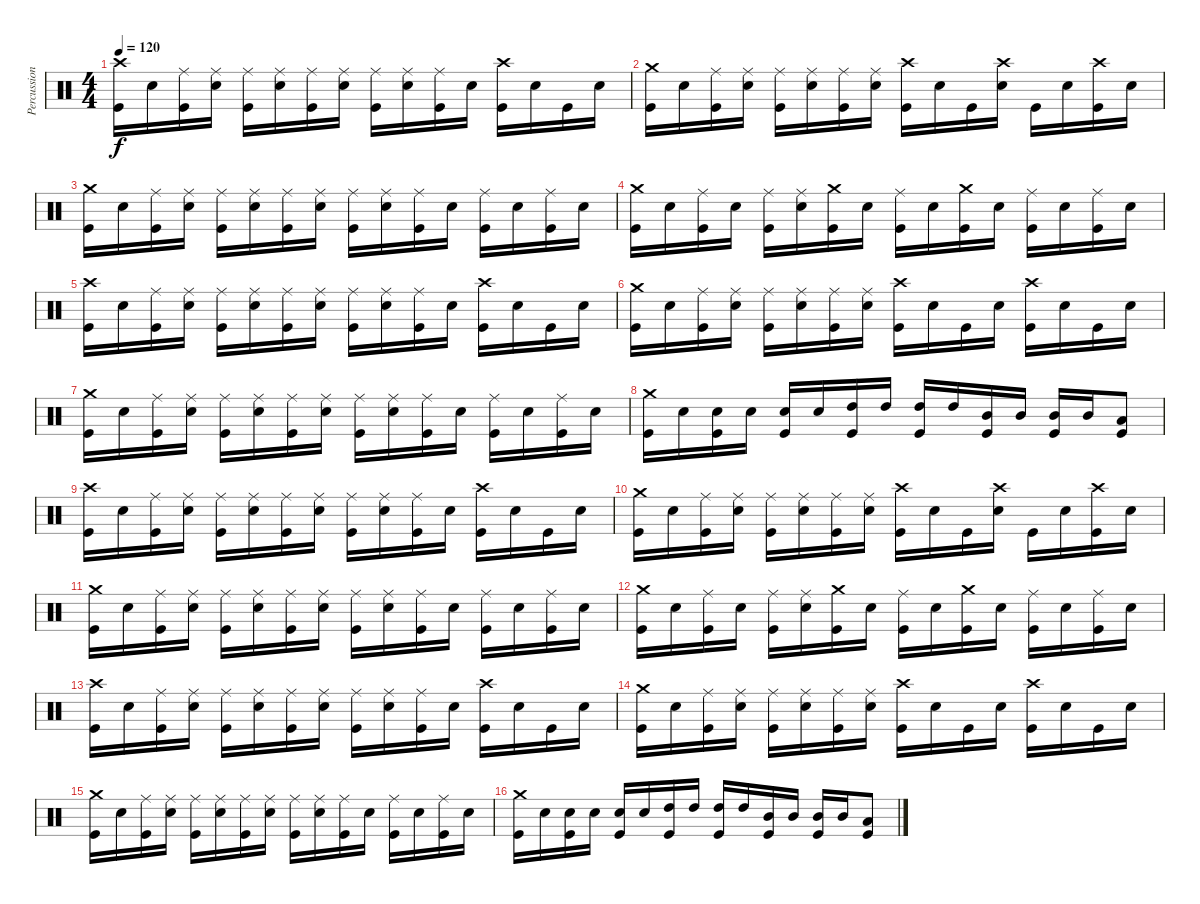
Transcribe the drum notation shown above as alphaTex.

\track ("Percussioni" "Percussion") {instrument percussion}
\staff {score}
\articulation defaults
\ts (4 4)
\tempo 120
\tempo 195
\tempo 120
\clef neutral
\ks c
("Crash high (hit)" "Kick (hit)").16{dy f} "Electric Snare (hit)".16 ("Ride (middle)" "Kick (hit)").16 ("Ride (middle)" "Electric Snare (hit)").16 ("Ride (middle)" "Kick (hit)").16 ("Ride (middle)" "Electric Snare (hit)").16 ("Ride (middle)" "Kick (hit)").16 ("Ride (middle)" "Electric Snare (hit)").16 ("Ride (middle)" "Kick (hit)").16 ("Ride (middle)" "Electric Snare (hit)").16 ("Ride (middle)" "Kick (hit)").16 "Electric Snare (hit)".16 ("Crash high (hit)" "Kick (hit)").16 "Electric Snare (hit)".16 "Kick (hit)".16 "Electric Snare (hit)".16 |
("Crash medium (hit)" "Kick (hit)").16 "Electric Snare (hit)".16 ("Ride (middle)" "Kick (hit)").16 ("Ride (middle)" "Electric Snare (hit)").16 ("Ride (middle)" "Kick (hit)").16 ("Ride (middle)" "Electric Snare (hit)").16 ("Ride (middle)" "Kick (hit)").16 ("Ride (middle)" "Electric Snare (hit)").16 ("Crash high (hit)" "Kick (hit)").16 "Electric Snare (hit)".16 "Kick (hit)".16 ("Crash high (hit)" "Electric Snare (hit)").16 "Kick (hit)".16 "Electric Snare (hit)".16 ("Crash high (hit)" "Kick (hit)").16 "Electric Snare (hit)".16 |
("Crash medium (hit)" "Kick (hit)").16 "Electric Snare (hit)".16 ("Ride (middle)" "Kick (hit)").16 ("Ride (middle)" "Electric Snare (hit)").16 ("Ride (middle)" "Kick (hit)").16 ("Ride (middle)" "Electric Snare (hit)").16 ("Ride (middle)" "Kick (hit)").16 ("Ride (middle)" "Electric Snare (hit)").16 ("Ride (middle)" "Kick (hit)").16 ("Ride (middle)" "Electric Snare (hit)").16 ("Ride (middle)" "Kick (hit)").16 "Electric Snare (hit)".16 ("Ride (middle)" "Kick (hit)").16 "Electric Snare (hit)".16 ("Ride (middle)" "Kick (hit)").16 "Electric Snare (hit)".16 |
("Crash medium (hit)" "Kick (hit)").16 "Electric Snare (hit)".16 ("Ride (middle)" "Kick (hit)").16 "Electric Snare (hit)".16 ("Ride (middle)" "Kick (hit)").16 ("Ride (middle)" "Electric Snare (hit)").16 ("Crash medium (hit)" "Kick (hit)").16 "Electric Snare (hit)".16 ("Ride (middle)" "Kick (hit)").16 "Electric Snare (hit)".16 ("Crash medium (hit)" "Kick (hit)").16 "Electric Snare (hit)".16 ("Ride (middle)" "Kick (hit)").16 "Electric Snare (hit)".16 ("Ride (middle)" "Kick (hit)").16 "Electric Snare (hit)".16 |
("Crash high (hit)" "Kick (hit)").16 "Electric Snare (hit)".16 ("Ride (middle)" "Kick (hit)").16 ("Ride (middle)" "Electric Snare (hit)").16 ("Ride (middle)" "Kick (hit)").16 ("Ride (middle)" "Electric Snare (hit)").16 ("Ride (middle)" "Kick (hit)").16 ("Ride (middle)" "Electric Snare (hit)").16 ("Ride (middle)" "Kick (hit)").16 ("Ride (middle)" "Electric Snare (hit)").16 ("Ride (middle)" "Kick (hit)").16 "Electric Snare (hit)".16 ("Crash high (hit)" "Kick (hit)").16 "Electric Snare (hit)".16 "Kick (hit)".16 "Electric Snare (hit)".16 |
("Crash medium (hit)" "Kick (hit)").16 "Electric Snare (hit)".16 ("Ride (middle)" "Kick (hit)").16 ("Ride (middle)" "Electric Snare (hit)").16 ("Ride (middle)" "Kick (hit)").16 ("Ride (middle)" "Electric Snare (hit)").16 ("Ride (middle)" "Kick (hit)").16 ("Ride (middle)" "Electric Snare (hit)").16 ("Crash high (hit)" "Kick (hit)").16 "Electric Snare (hit)".16 "Kick (hit)".16 "Electric Snare (hit)".16 ("Crash high (hit)" "Kick (hit)").16 "Electric Snare (hit)".16 "Kick (hit)".16 "Electric Snare (hit)".16 |
("Crash medium (hit)" "Kick (hit)").16 "Electric Snare (hit)".16 ("Ride (middle)" "Kick (hit)").16 ("Ride (middle)" "Electric Snare (hit)").16 ("Ride (middle)" "Kick (hit)").16 ("Ride (middle)" "Electric Snare (hit)").16 ("Ride (middle)" "Kick (hit)").16 ("Ride (middle)" "Electric Snare (hit)").16 ("Ride (middle)" "Kick (hit)").16 ("Ride (middle)" "Electric Snare (hit)").16 ("Ride (middle)" "Kick (hit)").16 "Electric Snare (hit)".16 ("Ride (middle)" "Kick (hit)").16 "Electric Snare (hit)".16 ("Ride (middle)" "Kick (hit)").16 "Electric Snare (hit)".16 |
("Crash medium (hit)" "Kick (hit)").16 "Electric Snare (hit)".16 ("Electric Snare (hit)" "Kick (hit)").16 "Electric Snare (hit)".16 ("Electric Snare (hit)" "Kick (hit)").16 "Electric Snare (hit)".16 ("High Tom (hit)" "Kick (hit)").16 "High Tom (hit)".16 ("High Tom (hit)" "Kick (hit)").16 "High Tom (hit)".16 ("Mid Tom (hit)" "Kick (hit)").16 "Mid Tom (hit)".16 ("Mid Tom (hit)" "Kick (hit)").16 "Mid Tom (hit)".16 ("Low Tom (hit)" "Kick (hit)").8 |
("Crash high (hit)" "Kick (hit)").16 "Electric Snare (hit)".16 ("Ride (middle)" "Kick (hit)").16 ("Ride (middle)" "Electric Snare (hit)").16 ("Ride (middle)" "Kick (hit)").16 ("Ride (middle)" "Electric Snare (hit)").16 ("Ride (middle)" "Kick (hit)").16 ("Ride (middle)" "Electric Snare (hit)").16 ("Ride (middle)" "Kick (hit)").16 ("Ride (middle)" "Electric Snare (hit)").16 ("Ride (middle)" "Kick (hit)").16 "Electric Snare (hit)".16 ("Crash high (hit)" "Kick (hit)").16 "Electric Snare (hit)".16 "Kick (hit)".16 "Electric Snare (hit)".16 |
("Crash medium (hit)" "Kick (hit)").16 "Electric Snare (hit)".16 ("Ride (middle)" "Kick (hit)").16 ("Ride (middle)" "Electric Snare (hit)").16 ("Ride (middle)" "Kick (hit)").16 ("Ride (middle)" "Electric Snare (hit)").16 ("Ride (middle)" "Kick (hit)").16 ("Ride (middle)" "Electric Snare (hit)").16 ("Crash high (hit)" "Kick (hit)").16 "Electric Snare (hit)".16 "Kick (hit)".16 ("Crash high (hit)" "Electric Snare (hit)").16 "Kick (hit)".16 "Electric Snare (hit)".16 ("Crash high (hit)" "Kick (hit)").16 "Electric Snare (hit)".16 |
("Crash medium (hit)" "Kick (hit)").16 "Electric Snare (hit)".16 ("Ride (middle)" "Kick (hit)").16 ("Ride (middle)" "Electric Snare (hit)").16 ("Ride (middle)" "Kick (hit)").16 ("Ride (middle)" "Electric Snare (hit)").16 ("Ride (middle)" "Kick (hit)").16 ("Ride (middle)" "Electric Snare (hit)").16 ("Ride (middle)" "Kick (hit)").16 ("Ride (middle)" "Electric Snare (hit)").16 ("Ride (middle)" "Kick (hit)").16 "Electric Snare (hit)".16 ("Ride (middle)" "Kick (hit)").16 "Electric Snare (hit)".16 ("Ride (middle)" "Kick (hit)").16 "Electric Snare (hit)".16 |
("Crash medium (hit)" "Kick (hit)").16 "Electric Snare (hit)".16 ("Ride (middle)" "Kick (hit)").16 "Electric Snare (hit)".16 ("Ride (middle)" "Kick (hit)").16 ("Ride (middle)" "Electric Snare (hit)").16 ("Crash medium (hit)" "Kick (hit)").16 "Electric Snare (hit)".16 ("Ride (middle)" "Kick (hit)").16 "Electric Snare (hit)".16 ("Crash medium (hit)" "Kick (hit)").16 "Electric Snare (hit)".16 ("Ride (middle)" "Kick (hit)").16 "Electric Snare (hit)".16 ("Ride (middle)" "Kick (hit)").16 "Electric Snare (hit)".16 |
("Crash high (hit)" "Kick (hit)").16 "Electric Snare (hit)".16 ("Ride (middle)" "Kick (hit)").16 ("Ride (middle)" "Electric Snare (hit)").16 ("Ride (middle)" "Kick (hit)").16 ("Ride (middle)" "Electric Snare (hit)").16 ("Ride (middle)" "Kick (hit)").16 ("Ride (middle)" "Electric Snare (hit)").16 ("Ride (middle)" "Kick (hit)").16 ("Ride (middle)" "Electric Snare (hit)").16 ("Ride (middle)" "Kick (hit)").16 "Electric Snare (hit)".16 ("Crash high (hit)" "Kick (hit)").16 "Electric Snare (hit)".16 "Kick (hit)".16 "Electric Snare (hit)".16 |
("Crash medium (hit)" "Kick (hit)").16 "Electric Snare (hit)".16 ("Ride (middle)" "Kick (hit)").16 ("Ride (middle)" "Electric Snare (hit)").16 ("Ride (middle)" "Kick (hit)").16 ("Ride (middle)" "Electric Snare (hit)").16 ("Ride (middle)" "Kick (hit)").16 ("Ride (middle)" "Electric Snare (hit)").16 ("Crash high (hit)" "Kick (hit)").16 "Electric Snare (hit)".16 "Kick (hit)".16 "Electric Snare (hit)".16 ("Crash high (hit)" "Kick (hit)").16 "Electric Snare (hit)".16 "Kick (hit)".16 "Electric Snare (hit)".16 |
("Crash medium (hit)" "Kick (hit)").16 "Electric Snare (hit)".16 ("Ride (middle)" "Kick (hit)").16 ("Ride (middle)" "Electric Snare (hit)").16 ("Ride (middle)" "Kick (hit)").16 ("Ride (middle)" "Electric Snare (hit)").16 ("Ride (middle)" "Kick (hit)").16 ("Ride (middle)" "Electric Snare (hit)").16 ("Ride (middle)" "Kick (hit)").16 ("Ride (middle)" "Electric Snare (hit)").16 ("Ride (middle)" "Kick (hit)").16 "Electric Snare (hit)".16 ("Ride (middle)" "Kick (hit)").16 "Electric Snare (hit)".16 ("Ride (middle)" "Kick (hit)").16 "Electric Snare (hit)".16 |
("Crash medium (hit)" "Kick (hit)").16 "Electric Snare (hit)".16 ("Electric Snare (hit)" "Kick (hit)").16 "Electric Snare (hit)".16 ("Electric Snare (hit)" "Kick (hit)").16 "Electric Snare (hit)".16 ("High Tom (hit)" "Kick (hit)").16 "High Tom (hit)".16 ("High Tom (hit)" "Kick (hit)").16 "High Tom (hit)".16 ("Mid Tom (hit)" "Kick (hit)").16 "Mid Tom (hit)".16 ("Mid Tom (hit)" "Kick (hit)").16 "Mid Tom (hit)".16 ("Low Tom (hit)" "Kick (hit)").8
